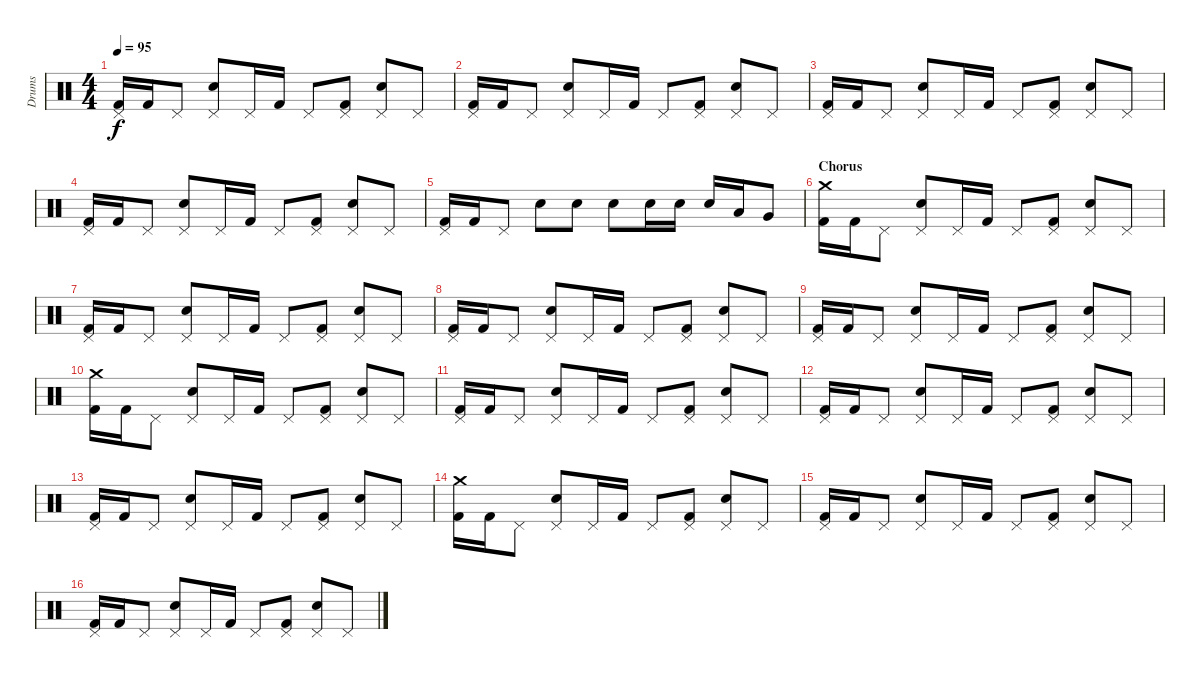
\track ("Drums" "Drums") {instrument percussion}
\staff {score}
\articulation defaults
\ts (4 4)
\tempo 95
\clef neutral
\ks c
("Pedal Hi-Hat (hit)" "Kick (hit) 2").16{dy f} "Kick (hit) 2".16 "Pedal Hi-Hat (hit)".8 ("Pedal Hi-Hat (hit)" "Electric Snare (hit)").8 "Pedal Hi-Hat (hit)".16 "Kick (hit) 2".16 "Pedal Hi-Hat (hit)".8 ("Pedal Hi-Hat (hit)" "Kick (hit) 2").8 ("Pedal Hi-Hat (hit)" "Electric Snare (hit)").8 "Pedal Hi-Hat (hit)".8 |
("Pedal Hi-Hat (hit)" "Kick (hit) 2").16 "Kick (hit) 2".16 "Pedal Hi-Hat (hit)".8 ("Pedal Hi-Hat (hit)" "Electric Snare (hit)").8 "Pedal Hi-Hat (hit)".16 "Kick (hit) 2".16 "Pedal Hi-Hat (hit)".8 ("Pedal Hi-Hat (hit)" "Kick (hit) 2").8 ("Pedal Hi-Hat (hit)" "Electric Snare (hit)").8 "Pedal Hi-Hat (hit)".8 |
("Pedal Hi-Hat (hit)" "Kick (hit) 2").16 "Kick (hit) 2".16 "Pedal Hi-Hat (hit)".8 ("Pedal Hi-Hat (hit)" "Electric Snare (hit)").8 "Pedal Hi-Hat (hit)".16 "Kick (hit) 2".16 "Pedal Hi-Hat (hit)".8 ("Pedal Hi-Hat (hit)" "Kick (hit) 2").8 ("Pedal Hi-Hat (hit)" "Electric Snare (hit)").8 "Pedal Hi-Hat (hit)".8 |
("Pedal Hi-Hat (hit)" "Kick (hit) 2").16 "Kick (hit) 2".16 "Pedal Hi-Hat (hit)".8 ("Pedal Hi-Hat (hit)" "Electric Snare (hit)").8 "Pedal Hi-Hat (hit)".16 "Kick (hit) 2".16 "Pedal Hi-Hat (hit)".8 ("Pedal Hi-Hat (hit)" "Kick (hit) 2").8 ("Pedal Hi-Hat (hit)" "Electric Snare (hit)").8 "Pedal Hi-Hat (hit)".8 |
("Pedal Hi-Hat (hit)" "Kick (hit) 2").16 "Kick (hit) 2".16 "Pedal Hi-Hat (hit)".8 "Electric Snare (hit)".8 "Electric Snare (hit)".8 "Electric Snare (hit)".8 "Electric Snare (hit)".16 "Electric Snare (hit)".16 "Electric Snare (hit)".16 "Low Tom (hit)".16 "Very Low Tom (hit)".8 |
\section ("" "Chorus")
("Crash medium (hit)" "Kick (hit) 2").16 "Kick (hit) 2".16 "Pedal Hi-Hat (hit)".8 ("Pedal Hi-Hat (hit)" "Electric Snare (hit)").8 "Pedal Hi-Hat (hit)".16 "Kick (hit) 2".16 "Pedal Hi-Hat (hit)".8 ("Pedal Hi-Hat (hit)" "Kick (hit) 2").8 ("Pedal Hi-Hat (hit)" "Electric Snare (hit)").8 "Pedal Hi-Hat (hit)".8 |
("Pedal Hi-Hat (hit)" "Kick (hit) 2").16 "Kick (hit) 2".16 "Pedal Hi-Hat (hit)".8 ("Pedal Hi-Hat (hit)" "Electric Snare (hit)").8 "Pedal Hi-Hat (hit)".16 "Kick (hit) 2".16 "Pedal Hi-Hat (hit)".8 ("Pedal Hi-Hat (hit)" "Kick (hit) 2").8 ("Pedal Hi-Hat (hit)" "Electric Snare (hit)").8 "Pedal Hi-Hat (hit)".8 |
("Pedal Hi-Hat (hit)" "Kick (hit) 2").16 "Kick (hit) 2".16 "Pedal Hi-Hat (hit)".8 ("Pedal Hi-Hat (hit)" "Electric Snare (hit)").8 "Pedal Hi-Hat (hit)".16 "Kick (hit) 2".16 "Pedal Hi-Hat (hit)".8 ("Pedal Hi-Hat (hit)" "Kick (hit) 2").8 ("Pedal Hi-Hat (hit)" "Electric Snare (hit)").8 "Pedal Hi-Hat (hit)".8 |
("Pedal Hi-Hat (hit)" "Kick (hit) 2").16 "Kick (hit) 2".16 "Pedal Hi-Hat (hit)".8 ("Pedal Hi-Hat (hit)" "Electric Snare (hit)").8 "Pedal Hi-Hat (hit)".16 "Kick (hit) 2".16 "Pedal Hi-Hat (hit)".8 ("Pedal Hi-Hat (hit)" "Kick (hit) 2").8 ("Pedal Hi-Hat (hit)" "Electric Snare (hit)").8 "Pedal Hi-Hat (hit)".8 |
("Crash medium (hit)" "Kick (hit) 2").16 "Kick (hit) 2".16 "Pedal Hi-Hat (hit)".8 ("Pedal Hi-Hat (hit)" "Electric Snare (hit)").8 "Pedal Hi-Hat (hit)".16 "Kick (hit) 2".16 "Pedal Hi-Hat (hit)".8 ("Pedal Hi-Hat (hit)" "Kick (hit) 2").8 ("Pedal Hi-Hat (hit)" "Electric Snare (hit)").8 "Pedal Hi-Hat (hit)".8 |
("Pedal Hi-Hat (hit)" "Kick (hit) 2").16 "Kick (hit) 2".16 "Pedal Hi-Hat (hit)".8 ("Pedal Hi-Hat (hit)" "Electric Snare (hit)").8 "Pedal Hi-Hat (hit)".16 "Kick (hit) 2".16 "Pedal Hi-Hat (hit)".8 ("Pedal Hi-Hat (hit)" "Kick (hit) 2").8 ("Pedal Hi-Hat (hit)" "Electric Snare (hit)").8 "Pedal Hi-Hat (hit)".8 |
("Pedal Hi-Hat (hit)" "Kick (hit) 2").16 "Kick (hit) 2".16 "Pedal Hi-Hat (hit)".8 ("Pedal Hi-Hat (hit)" "Electric Snare (hit)").8 "Pedal Hi-Hat (hit)".16 "Kick (hit) 2".16 "Pedal Hi-Hat (hit)".8 ("Pedal Hi-Hat (hit)" "Kick (hit) 2").8 ("Pedal Hi-Hat (hit)" "Electric Snare (hit)").8 "Pedal Hi-Hat (hit)".8 |
("Pedal Hi-Hat (hit)" "Kick (hit) 2").16 "Kick (hit) 2".16 "Pedal Hi-Hat (hit)".8 ("Pedal Hi-Hat (hit)" "Electric Snare (hit)").8 "Pedal Hi-Hat (hit)".16 "Kick (hit) 2".16 "Pedal Hi-Hat (hit)".8 ("Pedal Hi-Hat (hit)" "Kick (hit) 2").8 ("Pedal Hi-Hat (hit)" "Electric Snare (hit)").8 "Pedal Hi-Hat (hit)".8 |
("Crash medium (hit)" "Kick (hit) 2").16 "Kick (hit) 2".16 "Pedal Hi-Hat (hit)".8 ("Pedal Hi-Hat (hit)" "Electric Snare (hit)").8 "Pedal Hi-Hat (hit)".16 "Kick (hit) 2".16 "Pedal Hi-Hat (hit)".8 ("Pedal Hi-Hat (hit)" "Kick (hit) 2").8 ("Pedal Hi-Hat (hit)" "Electric Snare (hit)").8 "Pedal Hi-Hat (hit)".8 |
("Pedal Hi-Hat (hit)" "Kick (hit) 2").16 "Kick (hit) 2".16 "Pedal Hi-Hat (hit)".8 ("Pedal Hi-Hat (hit)" "Electric Snare (hit)").8 "Pedal Hi-Hat (hit)".16 "Kick (hit) 2".16 "Pedal Hi-Hat (hit)".8 ("Pedal Hi-Hat (hit)" "Kick (hit) 2").8 ("Pedal Hi-Hat (hit)" "Electric Snare (hit)").8 "Pedal Hi-Hat (hit)".8 |
("Pedal Hi-Hat (hit)" "Kick (hit) 2").16 "Kick (hit) 2".16 "Pedal Hi-Hat (hit)".8 ("Pedal Hi-Hat (hit)" "Electric Snare (hit)").8 "Pedal Hi-Hat (hit)".16 "Kick (hit) 2".16 "Pedal Hi-Hat (hit)".8 ("Pedal Hi-Hat (hit)" "Kick (hit) 2").8 ("Pedal Hi-Hat (hit)" "Electric Snare (hit)").8 "Pedal Hi-Hat (hit)".8
